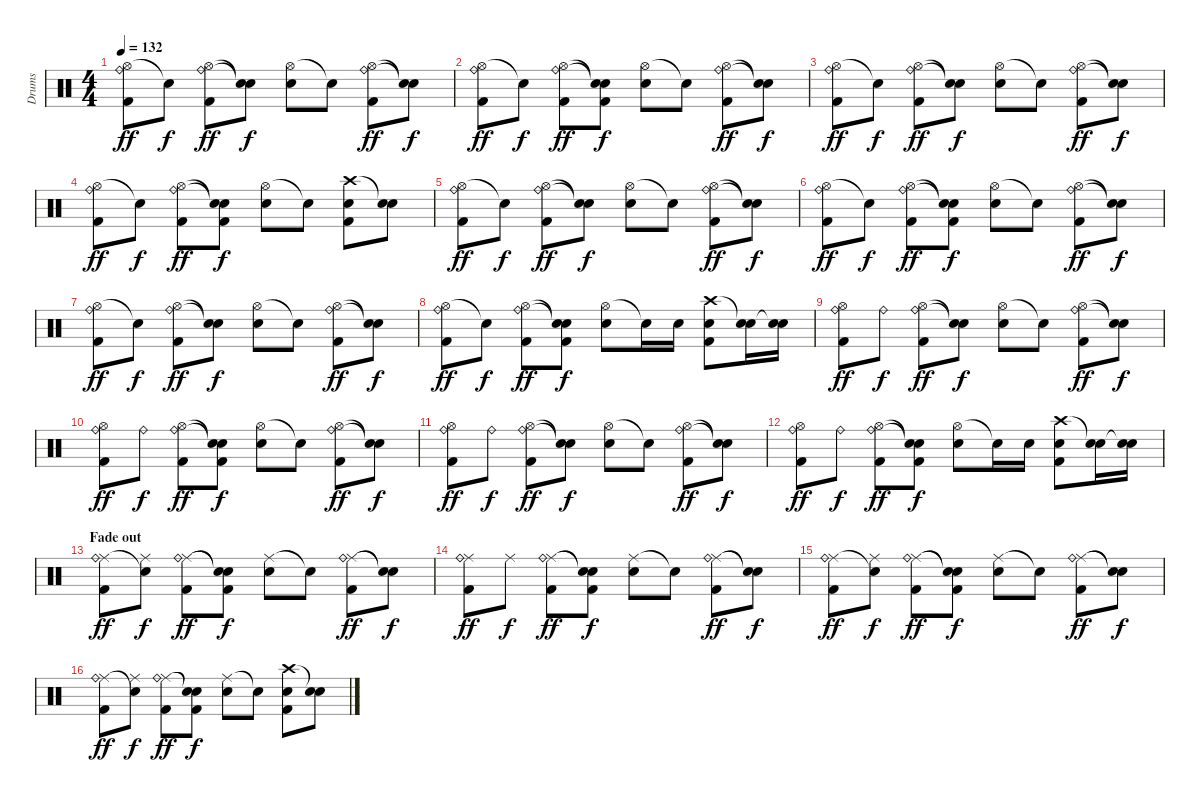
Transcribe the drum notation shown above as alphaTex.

\track ("Drums" "Drums") {instrument percussion}
\staff {score}
\articulation defaults
\ts (4 4)
\tempo 132
\clef neutral
\ks c
("Hi-Hat (open)" "Ride (bell)" "Kick (hit) 2").8{dy ff} "Snare (hit)"{t}.8{dy f} ("Hi-Hat (open)" "Ride (bell)" "Kick (hit) 2").8{dy ff} ("Snare (hit)"{t} "Snare (hit)"{t}).8{dy f} ("Hi-Hat (open)" "Electric Snare (hit)").8 "Snare (hit)"{t}.8 ("Hi-Hat (open)" "Ride (bell)" "Kick (hit) 2").8{dy ff} ("Snare (hit)"{t} "Snare (hit)"{t}).8{dy f} |
("Hi-Hat (open)" "Ride (bell)" "Kick (hit) 2").8{dy ff} "Snare (hit)"{t}.8{dy f} ("Hi-Hat (open)" "Ride (bell)" "Kick (hit) 2").8{dy ff} ("Snare (hit)"{t} "Snare (hit)"{t} "Kick (hit) 2").8{dy f} ("Hi-Hat (open)" "Electric Snare (hit)").8 "Snare (hit)"{t}.8 ("Hi-Hat (open)" "Ride (bell)" "Kick (hit) 2").8{dy ff} ("Snare (hit)"{t} "Snare (hit)"{t}).8{dy f} |
("Hi-Hat (open)" "Ride (bell)" "Kick (hit) 2").8{dy ff} "Snare (hit)"{t}.8{dy f} ("Hi-Hat (open)" "Ride (bell)" "Kick (hit) 2").8{dy ff} ("Snare (hit)"{t} "Snare (hit)"{t}).8{dy f} ("Hi-Hat (open)" "Electric Snare (hit)").8 "Snare (hit)"{t}.8 ("Hi-Hat (open)" "Ride (bell)" "Kick (hit) 2").8{dy ff} ("Snare (hit)"{t} "Snare (hit)"{t}).8{dy f} |
("Hi-Hat (open)" "Ride (bell)" "Kick (hit) 2").8{dy ff} "Snare (hit)"{t}.8{dy f} ("Hi-Hat (open)" "Ride (bell)" "Kick (hit) 2").8{dy ff} ("Snare (hit)"{t} "Snare (hit)"{t} "Kick (hit) 2").8{dy f} ("Hi-Hat (open)" "Electric Snare (hit)").8 "Snare (hit)"{t}.8 ("Crash high (hit)" "Electric Snare (hit)" "Kick (hit) 2").8 ("Snare (hit)"{t} "Electric Snare (hit)").8 |
("Hi-Hat (open)" "Ride (bell)" "Kick (hit) 2").8{dy ff} "Snare (hit)"{t}.8{dy f} ("Hi-Hat (open)" "Ride (bell)" "Kick (hit) 2").8{dy ff} ("Snare (hit)"{t} "Snare (hit)"{t}).8{dy f} ("Hi-Hat (open)" "Electric Snare (hit)").8 "Snare (hit)"{t}.8 ("Hi-Hat (open)" "Ride (bell)" "Kick (hit) 2").8{dy ff} ("Snare (hit)"{t} "Snare (hit)"{t}).8{dy f} |
("Hi-Hat (open)" "Ride (bell)" "Kick (hit) 2").8{dy ff} "Snare (hit)"{t}.8{dy f} ("Hi-Hat (open)" "Ride (bell)" "Kick (hit) 2").8{dy ff} ("Snare (hit)"{t} "Snare (hit)"{t} "Kick (hit) 2").8{dy f} ("Hi-Hat (open)" "Electric Snare (hit)").8 "Snare (hit)"{t}.8 ("Hi-Hat (open)" "Ride (bell)" "Kick (hit) 2").8{dy ff} ("Snare (hit)"{t} "Snare (hit)"{t}).8{dy f} |
("Hi-Hat (open)" "Ride (bell)" "Kick (hit) 2").8{dy ff} "Snare (hit)"{t}.8{dy f} ("Hi-Hat (open)" "Ride (bell)" "Kick (hit) 2").8{dy ff} ("Snare (hit)"{t} "Snare (hit)"{t}).8{dy f} ("Hi-Hat (open)" "Electric Snare (hit)").8 "Snare (hit)"{t}.8 ("Hi-Hat (open)" "Ride (bell)" "Kick (hit) 2").8{dy ff} ("Snare (hit)"{t} "Snare (hit)"{t}).8{dy f} |
("Hi-Hat (open)" "Ride (bell)" "Kick (hit) 2").8{dy ff} "Snare (hit)"{t}.8{dy f} ("Hi-Hat (open)" "Ride (bell)" "Kick (hit) 2").8{dy ff} ("Snare (hit)"{t} "Snare (hit)"{t} "Kick (hit) 2").8{dy f} ("Hi-Hat (open)" "Electric Snare (hit)").8 "Snare (hit)"{t}.16 "Electric Snare (hit)".16 ("Crash high (hit)" "Electric Snare (hit)" "Kick (hit) 2").8 ("Snare (hit)"{t} "Electric Snare (hit)").16 ("Snare (hit)"{t} "Electric Snare (hit)").16 |
("Hi-Hat (open)" "Ride (bell)" "Kick (hit) 2").8{dy ff} "Ride (bell)".8{dy f} ("Hi-Hat (open)" "Ride (bell)" "Kick (hit) 2").8{dy ff} ("Snare (hit)"{t} "Snare (hit)"{t}).8{dy f} ("Hi-Hat (open)" "Electric Snare (hit)").8 "Snare (hit)"{t}.8 ("Hi-Hat (open)" "Ride (bell)" "Kick (hit) 2").8{dy ff} ("Snare (hit)"{t} "Snare (hit)"{t}).8{dy f} |
("Hi-Hat (open)" "Ride (bell)" "Kick (hit) 2").8{dy ff} "Ride (bell)".8{dy f} ("Hi-Hat (open)" "Ride (bell)" "Kick (hit) 2").8{dy ff} ("Snare (hit)"{t} "Snare (hit)"{t} "Kick (hit) 2").8{dy f} ("Hi-Hat (open)" "Electric Snare (hit)").8 "Snare (hit)"{t}.8 ("Hi-Hat (open)" "Ride (bell)" "Kick (hit) 2").8{dy ff} ("Snare (hit)"{t} "Snare (hit)"{t}).8{dy f} |
("Hi-Hat (open)" "Ride (bell)" "Kick (hit) 2").8{dy ff} "Ride (bell)".8{dy f} ("Hi-Hat (open)" "Ride (bell)" "Kick (hit) 2").8{dy ff} ("Snare (hit)"{t} "Snare (hit)"{t}).8{dy f} ("Hi-Hat (open)" "Electric Snare (hit)").8 "Snare (hit)"{t}.8 ("Hi-Hat (open)" "Ride (bell)" "Kick (hit) 2").8{dy ff} ("Snare (hit)"{t} "Snare (hit)"{t}).8{dy f} |
("Hi-Hat (open)" "Ride (bell)" "Kick (hit) 2").8{dy ff} "Ride (bell)".8{dy f} ("Hi-Hat (open)" "Ride (bell)" "Kick (hit) 2").8{dy ff} ("Snare (hit)"{t} "Snare (hit)"{t} "Kick (hit) 2").8{dy f} ("Hi-Hat (open)" "Electric Snare (hit)").8 "Snare (hit)"{t}.16 "Electric Snare (hit)".16 ("Crash high (hit)" "Electric Snare (hit)" "Kick (hit) 2").8 ("Snare (hit)"{t} "Electric Snare (hit)").16 ("Snare (hit)"{t} "Electric Snare (hit)").16 |
\section ("" "Fade out")
("Ride (middle)" "Ride (bell)" "Kick (hit) 2").8{dy ff volume 10} ("Ride (middle)" "Snare (hit)"{t}).8{dy f} ("Ride (middle)" "Ride (bell)" "Kick (hit) 2").8{dy ff} ("Snare (hit)"{t} "Snare (hit)"{t} "Kick (hit) 2").8{dy f} ("Ride (middle)" "Electric Snare (hit)").8 "Snare (hit)"{t}.8 ("Ride (middle)" "Ride (bell)" "Kick (hit) 2").8{dy ff} ("Snare (hit)"{t} "Snare (hit)"{t}).8{dy f} |
("Ride (middle)" "Ride (bell)" "Kick (hit) 2").8{dy ff} "Ride (middle)".8{dy f} ("Ride (middle)" "Ride (bell)" "Kick (hit) 2").8{dy ff} ("Snare (hit)"{t} "Snare (hit)"{t} "Kick (hit) 2").8{dy f} ("Ride (middle)" "Electric Snare (hit)").8 "Snare (hit)"{t}.8 ("Ride (middle)" "Ride (bell)" "Kick (hit) 2").8{dy ff} ("Snare (hit)"{t} "Snare (hit)"{t}).8{dy f} |
("Ride (middle)" "Ride (bell)" "Kick (hit) 2").8{dy ff volume 8} ("Ride (middle)" "Snare (hit)"{t}).8{dy f} ("Ride (middle)" "Ride (bell)" "Kick (hit) 2").8{dy ff} ("Snare (hit)"{t} "Snare (hit)"{t} "Kick (hit) 2").8{dy f} ("Ride (middle)" "Electric Snare (hit)").8 "Snare (hit)"{t}.8 ("Ride (middle)" "Ride (bell)" "Kick (hit) 2").8{dy ff} ("Snare (hit)"{t} "Snare (hit)"{t}).8{dy f} |
("Ride (middle)" "Ride (bell)" "Kick (hit) 2").8{dy ff} ("Ride (middle)" "Snare (hit)"{t}).8{dy f} ("Ride (middle)" "Ride (bell)" "Kick (hit) 2").8{dy ff} ("Snare (hit)"{t} "Snare (hit)"{t} "Kick (hit) 2").8{dy f} ("Ride (middle)" "Electric Snare (hit)").8 "Snare (hit)"{t}.8 ("Crash high (hit)" "Electric Snare (hit)" "Kick (hit) 2").8 ("Snare (hit)"{t} "Electric Snare (hit)").8
